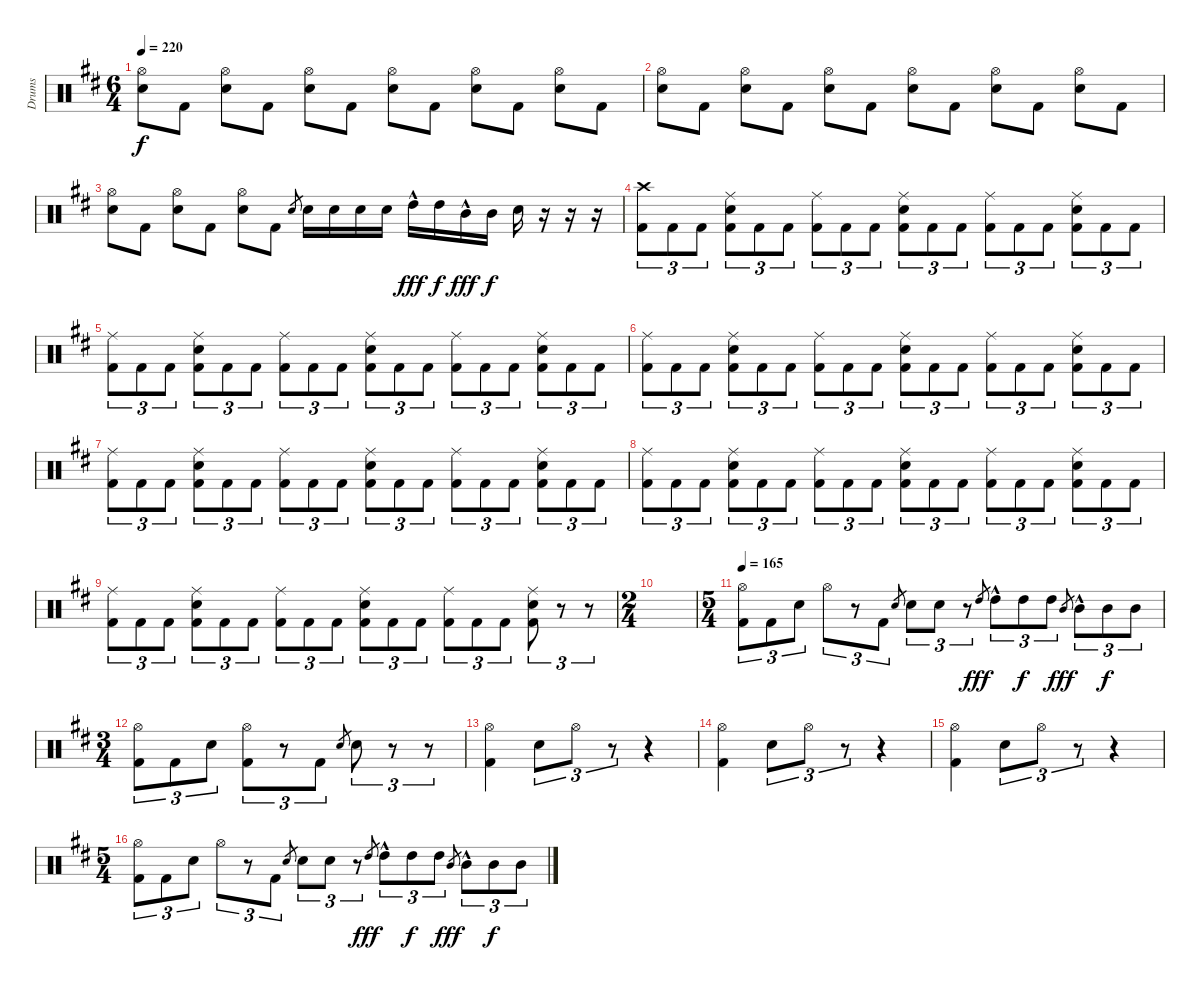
\track ("Drums" "Drums") {instrument percussion}
\staff {score}
\articulation defaults
\ts (6 4)
\tempo 220
\clef neutral
\ks bminor
("Electric Snare (hit)" "Hi-Hat (open)").8{dy f} "Kick (hit) 2".8 ("Electric Snare (hit)" "Hi-Hat (open)").8 "Kick (hit) 2".8 ("Electric Snare (hit)" "Hi-Hat (open)").8 "Kick (hit) 2".8 ("Electric Snare (hit)" "Hi-Hat (open)").8 "Kick (hit) 2".8 ("Electric Snare (hit)" "Hi-Hat (open)").8 "Kick (hit) 2".8 ("Electric Snare (hit)" "Hi-Hat (open)").8 "Kick (hit) 2".8 |
("Electric Snare (hit)" "Hi-Hat (open)").8 "Kick (hit) 2".8 ("Electric Snare (hit)" "Hi-Hat (open)").8 "Kick (hit) 2".8 ("Electric Snare (hit)" "Hi-Hat (open)").8 "Kick (hit) 2".8 ("Electric Snare (hit)" "Hi-Hat (open)").8 "Kick (hit) 2".8 ("Electric Snare (hit)" "Hi-Hat (open)").8 "Kick (hit) 2".8 ("Electric Snare (hit)" "Hi-Hat (open)").8 "Kick (hit) 2".8 |
("Electric Snare (hit)" "Hi-Hat (open)").8 "Kick (hit) 2".8 ("Electric Snare (hit)" "Hi-Hat (open)").8 "Kick (hit) 2".8 ("Electric Snare (hit)" "Hi-Hat (open)").8 "Kick (hit) 2".8 "Electric Snare (hit)".8{gr} "Electric Snare (hit)".16 "Electric Snare (hit)".16 "Electric Snare (hit)".16 "Electric Snare (hit)".16 "High Tom (hit)"{hac}.16{dy fff} "High Tom (hit)".16{dy f} "Mid Tom (hit)"{hac}.16{dy fff} "Mid Tom (hit)".16{dy f} "Electric Snare (hit)".16 r.16 r.16 r.16 |
("Kick (hit) 2" "Crash high (hit)").8{tu (3 2)} "Kick (hit) 2".8{tu (3 2)} "Kick (hit) 2".8{tu (3 2)} ("Kick (hit) 2" "Electric Snare (hit)" "Ride (middle)").8{tu (3 2)} "Kick (hit) 2".8{tu (3 2)} "Kick (hit) 2".8{tu (3 2)} ("Kick (hit) 2" "Ride (middle)").8{tu (3 2)} "Kick (hit) 2".8{tu (3 2)} "Kick (hit) 2".8{tu (3 2)} ("Kick (hit) 2" "Electric Snare (hit)" "Ride (middle)").8{tu (3 2)} "Kick (hit) 2".8{tu (3 2)} "Kick (hit) 2".8{tu (3 2)} ("Kick (hit) 2" "Ride (middle)").8{tu (3 2)} "Kick (hit) 2".8{tu (3 2)} "Kick (hit) 2".8{tu (3 2)} ("Kick (hit) 2" "Electric Snare (hit)" "Ride (middle)").8{tu (3 2)} "Kick (hit) 2".8{tu (3 2)} "Kick (hit) 2".8{tu (3 2)} |
("Kick (hit) 2" "Ride (middle)").8{tu (3 2)} "Kick (hit) 2".8{tu (3 2)} "Kick (hit) 2".8{tu (3 2)} ("Kick (hit) 2" "Electric Snare (hit)" "Ride (middle)").8{tu (3 2)} "Kick (hit) 2".8{tu (3 2)} "Kick (hit) 2".8{tu (3 2)} ("Kick (hit) 2" "Ride (middle)").8{tu (3 2)} "Kick (hit) 2".8{tu (3 2)} "Kick (hit) 2".8{tu (3 2)} ("Kick (hit) 2" "Electric Snare (hit)" "Ride (middle)").8{tu (3 2)} "Kick (hit) 2".8{tu (3 2)} "Kick (hit) 2".8{tu (3 2)} ("Kick (hit) 2" "Ride (middle)").8{tu (3 2)} "Kick (hit) 2".8{tu (3 2)} "Kick (hit) 2".8{tu (3 2)} ("Kick (hit) 2" "Electric Snare (hit)" "Ride (middle)").8{tu (3 2)} "Kick (hit) 2".8{tu (3 2)} "Kick (hit) 2".8{tu (3 2)} |
("Kick (hit) 2" "Ride (middle)").8{tu (3 2)} "Kick (hit) 2".8{tu (3 2)} "Kick (hit) 2".8{tu (3 2)} ("Kick (hit) 2" "Electric Snare (hit)" "Ride (middle)").8{tu (3 2)} "Kick (hit) 2".8{tu (3 2)} "Kick (hit) 2".8{tu (3 2)} ("Kick (hit) 2" "Ride (middle)").8{tu (3 2)} "Kick (hit) 2".8{tu (3 2)} "Kick (hit) 2".8{tu (3 2)} ("Kick (hit) 2" "Electric Snare (hit)" "Ride (middle)").8{tu (3 2)} "Kick (hit) 2".8{tu (3 2)} "Kick (hit) 2".8{tu (3 2)} ("Kick (hit) 2" "Ride (middle)").8{tu (3 2)} "Kick (hit) 2".8{tu (3 2)} "Kick (hit) 2".8{tu (3 2)} ("Kick (hit) 2" "Electric Snare (hit)" "Ride (middle)").8{tu (3 2)} "Kick (hit) 2".8{tu (3 2)} "Kick (hit) 2".8{tu (3 2)} |
("Kick (hit) 2" "Ride (middle)").8{tu (3 2)} "Kick (hit) 2".8{tu (3 2)} "Kick (hit) 2".8{tu (3 2)} ("Kick (hit) 2" "Electric Snare (hit)" "Ride (middle)").8{tu (3 2)} "Kick (hit) 2".8{tu (3 2)} "Kick (hit) 2".8{tu (3 2)} ("Kick (hit) 2" "Ride (middle)").8{tu (3 2)} "Kick (hit) 2".8{tu (3 2)} "Kick (hit) 2".8{tu (3 2)} ("Kick (hit) 2" "Electric Snare (hit)" "Ride (middle)").8{tu (3 2)} "Kick (hit) 2".8{tu (3 2)} "Kick (hit) 2".8{tu (3 2)} ("Kick (hit) 2" "Ride (middle)").8{tu (3 2)} "Kick (hit) 2".8{tu (3 2)} "Kick (hit) 2".8{tu (3 2)} ("Kick (hit) 2" "Electric Snare (hit)" "Ride (middle)").8{tu (3 2)} "Kick (hit) 2".8{tu (3 2)} "Kick (hit) 2".8{tu (3 2)} |
("Kick (hit) 2" "Ride (middle)").8{tu (3 2)} "Kick (hit) 2".8{tu (3 2)} "Kick (hit) 2".8{tu (3 2)} ("Kick (hit) 2" "Electric Snare (hit)" "Ride (middle)").8{tu (3 2)} "Kick (hit) 2".8{tu (3 2)} "Kick (hit) 2".8{tu (3 2)} ("Kick (hit) 2" "Ride (middle)").8{tu (3 2)} "Kick (hit) 2".8{tu (3 2)} "Kick (hit) 2".8{tu (3 2)} ("Kick (hit) 2" "Electric Snare (hit)" "Ride (middle)").8{tu (3 2)} "Kick (hit) 2".8{tu (3 2)} "Kick (hit) 2".8{tu (3 2)} ("Kick (hit) 2" "Ride (middle)").8{tu (3 2)} "Kick (hit) 2".8{tu (3 2)} "Kick (hit) 2".8{tu (3 2)} ("Kick (hit) 2" "Electric Snare (hit)" "Ride (middle)").8{tu (3 2)} "Kick (hit) 2".8{tu (3 2)} "Kick (hit) 2".8{tu (3 2)} |
("Kick (hit) 2" "Ride (middle)").8{tu (3 2)} "Kick (hit) 2".8{tu (3 2)} "Kick (hit) 2".8{tu (3 2)} ("Kick (hit) 2" "Electric Snare (hit)" "Ride (middle)").8{tu (3 2)} "Kick (hit) 2".8{tu (3 2)} "Kick (hit) 2".8{tu (3 2)} ("Kick (hit) 2" "Ride (middle)").8{tu (3 2)} "Kick (hit) 2".8{tu (3 2)} "Kick (hit) 2".8{tu (3 2)} ("Kick (hit) 2" "Electric Snare (hit)" "Ride (middle)").8{tu (3 2)} "Kick (hit) 2".8{tu (3 2)} "Kick (hit) 2".8{tu (3 2)} ("Kick (hit) 2" "Ride (middle)").8{tu (3 2)} "Kick (hit) 2".8{tu (3 2)} "Kick (hit) 2".8{tu (3 2)} ("Kick (hit) 2" "Electric Snare (hit)" "Ride (middle)").8{tu (3 2)} r.8{tu (3 2)} r.8{tu (3 2)} |
\ts (2 4)
|
\ts (5 4)
\tempo 165
("Kick (hit) 2" "Hi-Hat (open)").8{tu (3 2)} "Kick (hit) 2".8{tu (3 2)} "Electric Snare (hit)".8{tu (3 2)} "Hi-Hat (open)".8{tu (3 2)} r.8{tu (3 2)} "Kick (hit) 2".8{tu (3 2)} "Electric Snare (hit)".8{gr} "Electric Snare (hit)".8{tu (3 2)} "Electric Snare (hit)".8{tu (3 2)} r.8{tu (3 2)} "High Tom (hit)".8{gr dy fff} "High Tom (hit)"{hac}.8{tu (3 2)} "High Tom (hit)".8{tu (3 2) dy f} "High Tom (hit)".8{tu (3 2)} "Mid Tom (hit)".8{gr dy fff} "Mid Tom (hit)"{hac}.8{tu (3 2)} "Mid Tom (hit)".8{tu (3 2) dy f} "Mid Tom (hit)".8{tu (3 2)} |
\ts (3 4)
("Kick (hit) 2" "Hi-Hat (open)").8{tu (3 2)} "Kick (hit) 2".8{tu (3 2)} "Electric Snare (hit)".8{tu (3 2)} ("Kick (hit) 2" "Hi-Hat (open)").8{tu (3 2)} r.8{tu (3 2)} "Kick (hit) 2".8{tu (3 2)} "Electric Snare (hit)".8{gr} "Electric Snare (hit)".8{tu (3 2)} r.8{tu (3 2)} r.8{tu (3 2)} |
("Kick (hit) 2" "Hi-Hat (open)").4 "Electric Snare (hit)".8{tu (3 2)} "Hi-Hat (open)".8{tu (3 2)} r.8{tu (3 2)} r.4 |
("Kick (hit) 2" "Hi-Hat (open)").4 "Electric Snare (hit)".8{tu (3 2)} "Hi-Hat (open)".8{tu (3 2)} r.8{tu (3 2)} r.4 |
("Kick (hit) 2" "Hi-Hat (open)").4 "Electric Snare (hit)".8{tu (3 2)} "Hi-Hat (open)".8{tu (3 2)} r.8{tu (3 2)} r.4 |
\ts (5 4)
("Kick (hit) 2" "Hi-Hat (open)").8{tu (3 2)} "Kick (hit) 2".8{tu (3 2)} "Electric Snare (hit)".8{tu (3 2)} "Hi-Hat (open)".8{tu (3 2)} r.8{tu (3 2)} "Kick (hit) 2".8{tu (3 2)} "Electric Snare (hit)".8{gr} "Electric Snare (hit)".8{tu (3 2)} "Electric Snare (hit)".8{tu (3 2)} r.8{tu (3 2)} "High Tom (hit)".8{gr dy fff} "High Tom (hit)"{hac}.8{tu (3 2)} "High Tom (hit)".8{tu (3 2) dy f} "High Tom (hit)".8{tu (3 2)} "Mid Tom (hit)".8{gr dy fff} "Mid Tom (hit)"{hac}.8{tu (3 2)} "Mid Tom (hit)".8{tu (3 2) dy f} "Mid Tom (hit)".8{tu (3 2)}
